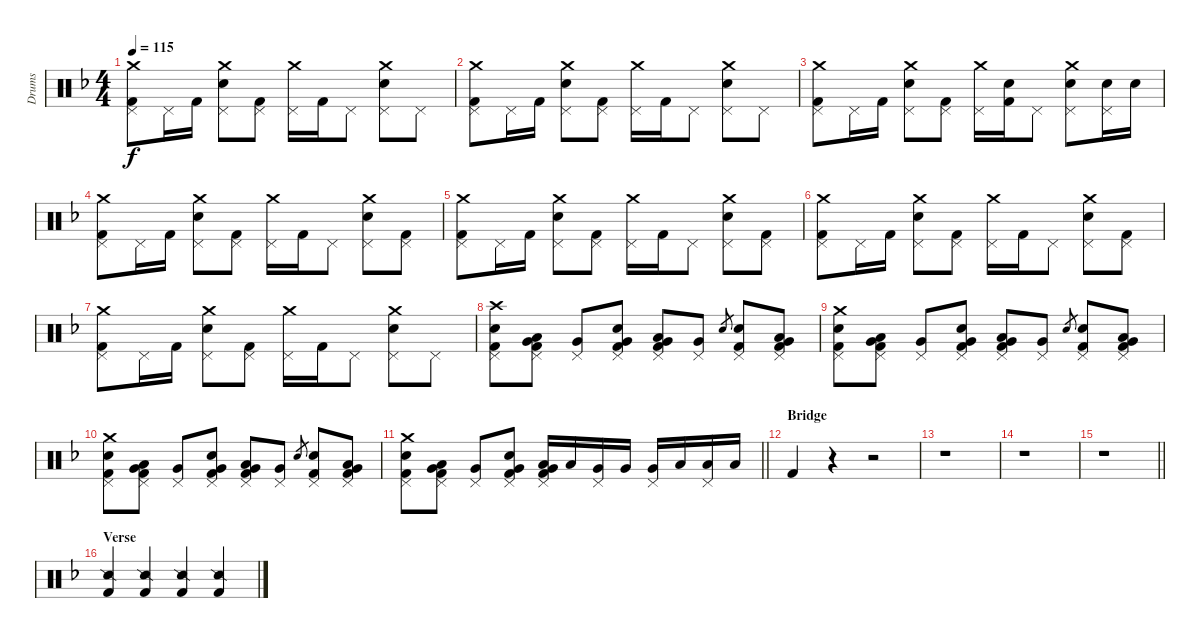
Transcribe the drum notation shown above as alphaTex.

\track ("Drums" "Drums") {instrument percussion}
\staff {score}
\articulation defaults
\ts (4 4)
\tempo 115
\clef neutral
\ks dminor
("Crash medium (hit)" "Pedal Hi-Hat (hit)" "Kick (hit) 2").8{dy f} "Pedal Hi-Hat (hit)".16 "Kick (hit) 2".16 ("Crash medium (hit)" "Electric Snare (hit)" "Pedal Hi-Hat (hit)").8 ("Pedal Hi-Hat (hit)" "Kick (hit) 2").8 ("Crash medium (hit)" "Pedal Hi-Hat (hit)").16 "Kick (hit) 2".16 "Pedal Hi-Hat (hit)".8 ("Crash medium (hit)" "Electric Snare (hit)" "Pedal Hi-Hat (hit)").8 "Pedal Hi-Hat (hit)".8 |
("Crash medium (hit)" "Pedal Hi-Hat (hit)" "Kick (hit) 2").8 "Pedal Hi-Hat (hit)".16 "Kick (hit) 2".16 ("Crash medium (hit)" "Electric Snare (hit)" "Pedal Hi-Hat (hit)").8 ("Pedal Hi-Hat (hit)" "Kick (hit) 2").8 ("Crash medium (hit)" "Pedal Hi-Hat (hit)").16 "Kick (hit) 2".16 "Pedal Hi-Hat (hit)".8 ("Crash medium (hit)" "Electric Snare (hit)" "Pedal Hi-Hat (hit)").8 "Pedal Hi-Hat (hit)".8 |
("Crash medium (hit)" "Pedal Hi-Hat (hit)" "Kick (hit) 2").8 "Pedal Hi-Hat (hit)".16 "Kick (hit) 2".16 ("Crash medium (hit)" "Electric Snare (hit)" "Pedal Hi-Hat (hit)").8 ("Pedal Hi-Hat (hit)" "Kick (hit) 2").8 ("Crash medium (hit)" "Pedal Hi-Hat (hit)").16 ("Electric Snare (hit)" "Kick (hit) 2").16 "Pedal Hi-Hat (hit)".8 ("Crash medium (hit)" "Electric Snare (hit)" "Pedal Hi-Hat (hit)").8 ("Electric Snare (hit)" "Pedal Hi-Hat (hit)").16 "Electric Snare (hit)".16 |
("Crash medium (hit)" "Pedal Hi-Hat (hit)" "Kick (hit) 2").8 "Pedal Hi-Hat (hit)".16 "Kick (hit) 2".16 ("Crash medium (hit)" "Electric Snare (hit)" "Pedal Hi-Hat (hit)").8 ("Pedal Hi-Hat (hit)" "Kick (hit) 2").8 ("Crash medium (hit)" "Pedal Hi-Hat (hit)").16 "Kick (hit) 2".16 "Pedal Hi-Hat (hit)".8 ("Crash medium (hit)" "Electric Snare (hit)" "Pedal Hi-Hat (hit)").8 ("Pedal Hi-Hat (hit)" "Kick (hit) 2").8 |
("Crash medium (hit)" "Pedal Hi-Hat (hit)" "Kick (hit) 2").8 "Pedal Hi-Hat (hit)".16 "Kick (hit) 2".16 ("Crash medium (hit)" "Electric Snare (hit)" "Pedal Hi-Hat (hit)").8 ("Pedal Hi-Hat (hit)" "Kick (hit) 2").8 ("Crash medium (hit)" "Pedal Hi-Hat (hit)").16 "Kick (hit) 2".16 "Pedal Hi-Hat (hit)".8 ("Crash medium (hit)" "Electric Snare (hit)" "Pedal Hi-Hat (hit)").8 ("Pedal Hi-Hat (hit)" "Kick (hit) 2").8 |
("Crash medium (hit)" "Pedal Hi-Hat (hit)" "Kick (hit) 2").8 "Pedal Hi-Hat (hit)".16 "Kick (hit) 2".16 ("Crash medium (hit)" "Electric Snare (hit)" "Pedal Hi-Hat (hit)").8 ("Pedal Hi-Hat (hit)" "Kick (hit) 2").8 ("Crash medium (hit)" "Pedal Hi-Hat (hit)").16 "Kick (hit) 2".16 "Pedal Hi-Hat (hit)".8 ("Crash medium (hit)" "Electric Snare (hit)" "Pedal Hi-Hat (hit)").8 ("Pedal Hi-Hat (hit)" "Kick (hit) 2").8 |
("Crash medium (hit)" "Pedal Hi-Hat (hit)" "Kick (hit) 2").8 "Pedal Hi-Hat (hit)".16 "Kick (hit) 2".16 ("Crash medium (hit)" "Electric Snare (hit)" "Pedal Hi-Hat (hit)").8 ("Pedal Hi-Hat (hit)" "Kick (hit) 2").8 ("Crash medium (hit)" "Pedal Hi-Hat (hit)").16 "Kick (hit) 2".16 "Pedal Hi-Hat (hit)".8 ("Crash medium (hit)" "Electric Snare (hit)" "Pedal Hi-Hat (hit)").8 "Pedal Hi-Hat (hit)".8 |
("Crash high (hit)" "Electric Snare (hit)" "Pedal Hi-Hat (hit)" "Kick (hit) 2").8 ("Low Tom (hit)" "Very Low Tom (hit)" "Pedal Hi-Hat (hit)" "Kick (hit) 2").8 ("Very Low Tom (hit)" "Pedal Hi-Hat (hit)").8 ("Electric Snare (hit)" "Very Low Tom (hit)" "Pedal Hi-Hat (hit)" "Kick (hit) 2").8 ("Low Tom (hit)" "Very Low Tom (hit)" "Pedal Hi-Hat (hit)" "Kick (hit) 2").8 ("Very Low Tom (hit)" "Pedal Hi-Hat (hit)").8 "Electric Snare (hit)".8{gr} ("Electric Snare (hit)" "Pedal Hi-Hat (hit)" "Kick (hit) 2").8 ("Low Tom (hit)" "Very Low Tom (hit)" "Pedal Hi-Hat (hit)" "Kick (hit) 2").8 |
("Crash medium (hit)" "Electric Snare (hit)" "Pedal Hi-Hat (hit)" "Kick (hit) 2").8 ("Low Tom (hit)" "Very Low Tom (hit)" "Pedal Hi-Hat (hit)" "Kick (hit) 2").8 ("Very Low Tom (hit)" "Pedal Hi-Hat (hit)").8 ("Electric Snare (hit)" "Very Low Tom (hit)" "Pedal Hi-Hat (hit)" "Kick (hit) 2").8 ("Low Tom (hit)" "Very Low Tom (hit)" "Pedal Hi-Hat (hit)" "Kick (hit) 2").8 ("Very Low Tom (hit)" "Pedal Hi-Hat (hit)").8 "Electric Snare (hit)".8{gr} ("Electric Snare (hit)" "Pedal Hi-Hat (hit)" "Kick (hit) 2").8 ("Low Tom (hit)" "Very Low Tom (hit)" "Pedal Hi-Hat (hit)" "Kick (hit) 2").8 |
("Crash medium (hit)" "Electric Snare (hit)" "Pedal Hi-Hat (hit)" "Kick (hit) 2").8 ("Low Tom (hit)" "Very Low Tom (hit)" "Pedal Hi-Hat (hit)" "Kick (hit) 2").8 ("Very Low Tom (hit)" "Pedal Hi-Hat (hit)").8 ("Electric Snare (hit)" "Very Low Tom (hit)" "Pedal Hi-Hat (hit)" "Kick (hit) 2").8 ("Low Tom (hit)" "Very Low Tom (hit)" "Pedal Hi-Hat (hit)" "Kick (hit) 2").8 ("Very Low Tom (hit)" "Pedal Hi-Hat (hit)").8 "Electric Snare (hit)".8{gr} ("Electric Snare (hit)" "Pedal Hi-Hat (hit)" "Kick (hit) 2").8 ("Low Tom (hit)" "Very Low Tom (hit)" "Pedal Hi-Hat (hit)" "Kick (hit) 2").8 |
\barLineRight lightlight
("Crash medium (hit)" "Electric Snare (hit)" "Pedal Hi-Hat (hit)" "Kick (hit) 2").8 ("Low Tom (hit)" "Very Low Tom (hit)" "Pedal Hi-Hat (hit)" "Kick (hit) 2").8 ("Very Low Tom (hit)" "Pedal Hi-Hat (hit)").8 ("Electric Snare (hit)" "Very Low Tom (hit)" "Pedal Hi-Hat (hit)" "Kick (hit) 2").8 ("Low Tom (hit)" "Very Low Tom (hit)" "Pedal Hi-Hat (hit)" "Kick (hit) 2").16 "Low Tom (hit)".16 ("Very Low Tom (hit)" "Pedal Hi-Hat (hit)").16 "Very Low Tom (hit)".16 ("Very Low Tom (hit)" "Pedal Hi-Hat (hit)").16 "Low Floor Tom (hit)".16 ("Pedal Hi-Hat (hit)" "Low Floor Tom (hit)").16 "Low Floor Tom (hit)".16 |
\section ("" "Bridge")
"Kick (hit) 2".4 r.4 r.2 |
r.1 |
r.1 |
\barLineRight lightlight
r.1 |
\section ("" "Verse")
("Snare (side stick) 2" "Kick (hit) 2").4 ("Snare (side stick) 2" "Kick (hit) 2").4 ("Snare (side stick) 2" "Kick (hit) 2").4 ("Snare (side stick) 2" "Kick (hit) 2").4
